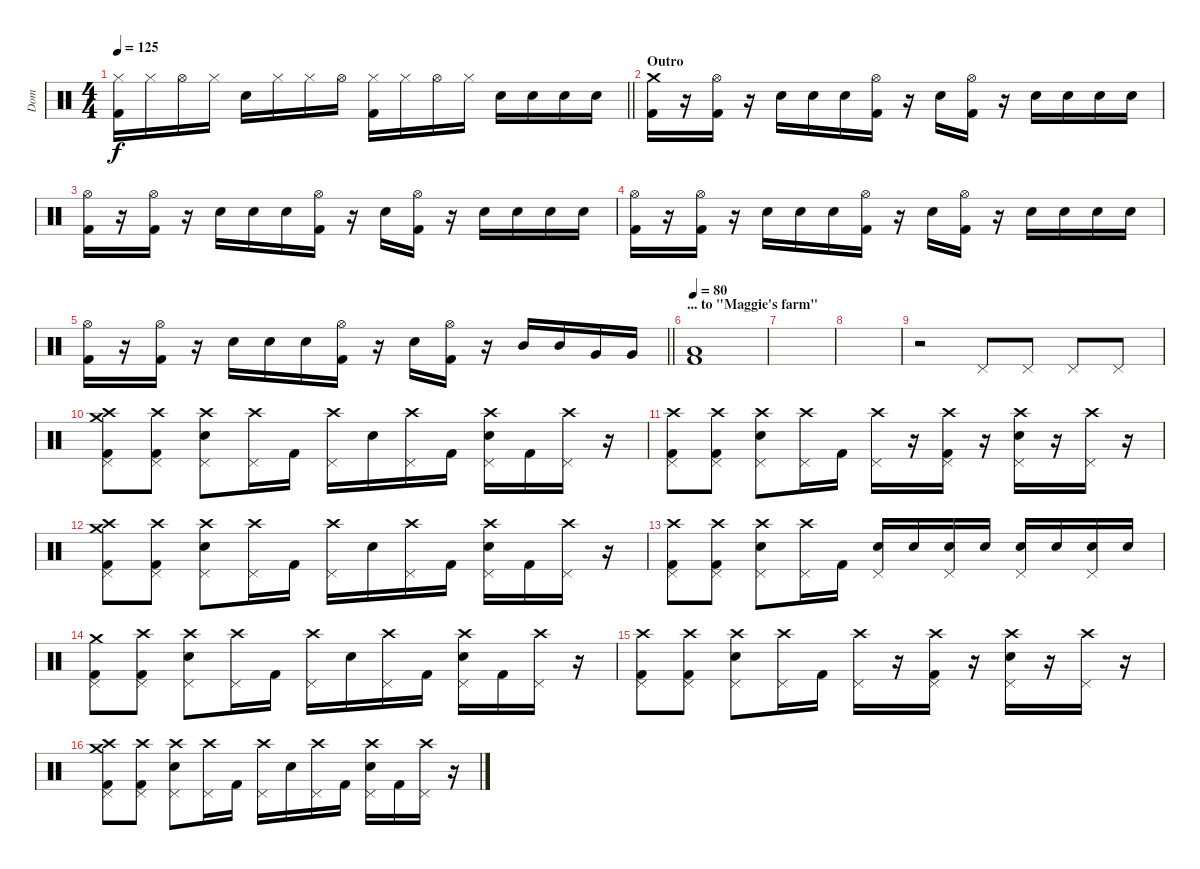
\track ("Dom" "Dom") {instrument percussion}
\staff {score}
\articulation defaults
\ts (4 4)
\tempo 125
\clef neutral
\barLineRight lightlight
\ks c
("Hi-Hat (closed)" "Kick (hit) 2").16{dy f} "Hi-Hat (closed)".16 "Hi-Hat (open)".16 "Hi-Hat (closed)".16 "Snare (hit) 2".16 "Hi-Hat (closed)".16 "Hi-Hat (closed)".16 "Hi-Hat (open)".16 ("Hi-Hat (closed)" "Kick (hit) 2").16 "Hi-Hat (closed)".16 "Hi-Hat (open)".16 "Hi-Hat (closed)".16 "Snare (hit) 2".16 "Snare (hit) 2".16 "Snare (hit) 2".16 "Snare (hit) 2".16 |
\section ("" "Outro")
("Crash medium (hit)" "Kick (hit) 2").16 r.16 ("Hi-Hat (open)" "Kick (hit) 2").16 r.16 "Snare (hit) 2".16 "Snare (hit) 2".16 "Snare (hit) 2".16 ("Hi-Hat (open)" "Kick (hit) 2").16 r.16 "Snare (hit) 2".16 ("Hi-Hat (open)" "Kick (hit) 2").16 r.16 "Snare (hit) 2".16 "Snare (hit) 2".16 "Snare (hit) 2".16 "Snare (hit) 2".16 |
("Hi-Hat (open)" "Kick (hit) 2").16 r.16 ("Hi-Hat (open)" "Kick (hit) 2").16 r.16 "Snare (hit) 2".16 "Snare (hit) 2".16 "Snare (hit) 2".16 ("Hi-Hat (open)" "Kick (hit) 2").16 r.16 "Snare (hit) 2".16 ("Hi-Hat (open)" "Kick (hit) 2").16 r.16 "Snare (hit) 2".16 "Snare (hit) 2".16 "Snare (hit) 2".16 "Snare (hit) 2".16 |
("Hi-Hat (open)" "Kick (hit) 2").16 r.16 ("Hi-Hat (open)" "Kick (hit) 2").16 r.16 "Snare (hit) 2".16 "Snare (hit) 2".16 "Snare (hit) 2".16 ("Hi-Hat (open)" "Kick (hit) 2").16 r.16 "Snare (hit) 2".16 ("Hi-Hat (open)" "Kick (hit) 2").16 r.16 "Snare (hit) 2".16 "Snare (hit) 2".16 "Snare (hit) 2".16 "Snare (hit) 2".16 |
\barLineRight lightlight
("Hi-Hat (open)" "Kick (hit) 2").16 r.16 ("Hi-Hat (open)" "Kick (hit) 2").16 r.16 "Snare (hit) 2".16 "Snare (hit) 2".16 "Snare (hit) 2".16 ("Hi-Hat (open)" "Kick (hit) 2").16 r.16 "Snare (hit) 2".16 ("Hi-Hat (open)" "Kick (hit) 2").16 r.16 "Mid Tom (hit)".16 "Mid Tom (hit)".16 "Very Low Tom (hit)".16 "Very Low Tom (hit)".16 |
\section ("" "... to \"Maggie's farm\"")
\tempo 80
("Low Floor Tom (hit)" "Kick (hit) 2").1 |
|
|
r.2 "Pedal Hi-Hat (hit)".8 "Pedal Hi-Hat (hit)".8 "Pedal Hi-Hat (hit)".8 "Pedal Hi-Hat (hit)".8 |
("Crash high (hit)" "Crash medium (hit)" "Pedal Hi-Hat (hit)" "Kick (hit) 2").8 ("Crash high (hit)" "Pedal Hi-Hat (hit)" "Kick (hit) 2").8 ("Crash high (hit)" "Snare (hit) 2" "Pedal Hi-Hat (hit)").8 ("Crash high (hit)" "Pedal Hi-Hat (hit)").16 "Kick (hit) 2".16 ("Crash high (hit)" "Pedal Hi-Hat (hit)").16 "Snare (hit) 2".16 ("Crash high (hit)" "Pedal Hi-Hat (hit)").16 "Kick (hit) 2".16 ("Crash high (hit)" "Snare (hit) 2" "Pedal Hi-Hat (hit)").16 "Kick (hit) 2".16 ("Crash high (hit)" "Pedal Hi-Hat (hit)").16 r.16 |
("Crash high (hit)" "Pedal Hi-Hat (hit)" "Kick (hit) 2").8 ("Crash high (hit)" "Pedal Hi-Hat (hit)" "Kick (hit) 2").8 ("Crash high (hit)" "Snare (hit) 2" "Pedal Hi-Hat (hit)").8 ("Crash high (hit)" "Pedal Hi-Hat (hit)").16 "Kick (hit) 2".16 ("Crash high (hit)" "Pedal Hi-Hat (hit)").16 r.16 ("Crash high (hit)" "Pedal Hi-Hat (hit)" "Kick (hit) 2").16 r.16 ("Crash high (hit)" "Snare (hit) 2" "Pedal Hi-Hat (hit)").16 r.16 ("Crash high (hit)" "Pedal Hi-Hat (hit)").16 r.16 |
("Crash high (hit)" "Crash medium (hit)" "Pedal Hi-Hat (hit)" "Kick (hit) 2").8 ("Crash high (hit)" "Pedal Hi-Hat (hit)" "Kick (hit) 2").8 ("Crash high (hit)" "Snare (hit) 2" "Pedal Hi-Hat (hit)").8 ("Crash high (hit)" "Pedal Hi-Hat (hit)").16 "Kick (hit) 2".16 ("Crash high (hit)" "Pedal Hi-Hat (hit)").16 "Snare (hit) 2".16 ("Crash high (hit)" "Pedal Hi-Hat (hit)").16 "Kick (hit) 2".16 ("Crash high (hit)" "Snare (hit) 2" "Pedal Hi-Hat (hit)").16 "Kick (hit) 2".16 ("Crash high (hit)" "Pedal Hi-Hat (hit)").16 r.16 |
("Crash high (hit)" "Pedal Hi-Hat (hit)" "Kick (hit) 2").8 ("Crash high (hit)" "Pedal Hi-Hat (hit)" "Kick (hit) 2").8 ("Crash high (hit)" "Snare (hit) 2" "Pedal Hi-Hat (hit)").8 ("Crash high (hit)" "Pedal Hi-Hat (hit)").16 "Kick (hit) 2".16 ("Snare (hit) 2" "Pedal Hi-Hat (hit)").16 "Snare (hit) 2".16 ("Snare (hit) 2" "Pedal Hi-Hat (hit)").16 "Snare (hit) 2".16 ("Snare (hit) 2" "Pedal Hi-Hat (hit)").16 "Snare (hit) 2".16 ("Snare (hit) 2" "Pedal Hi-Hat (hit)").16 "Snare (hit) 2".16 |
("Crash medium (hit)" "Pedal Hi-Hat (hit)" "Kick (hit) 2").8 ("Crash high (hit)" "Pedal Hi-Hat (hit)" "Kick (hit) 2").8 ("Crash high (hit)" "Snare (hit) 2" "Pedal Hi-Hat (hit)").8 ("Crash high (hit)" "Pedal Hi-Hat (hit)").16 "Kick (hit) 2".16 ("Crash high (hit)" "Pedal Hi-Hat (hit)").16 "Snare (hit) 2".16 ("Crash high (hit)" "Pedal Hi-Hat (hit)").16 "Kick (hit) 2".16 ("Crash high (hit)" "Snare (hit) 2" "Pedal Hi-Hat (hit)").16 "Kick (hit) 2".16 ("Crash high (hit)" "Pedal Hi-Hat (hit)").16 r.16 |
("Crash high (hit)" "Pedal Hi-Hat (hit)" "Kick (hit) 2").8 ("Crash high (hit)" "Pedal Hi-Hat (hit)" "Kick (hit) 2").8 ("Crash high (hit)" "Snare (hit) 2" "Pedal Hi-Hat (hit)").8 ("Crash high (hit)" "Pedal Hi-Hat (hit)").16 "Kick (hit) 2".16 ("Crash high (hit)" "Pedal Hi-Hat (hit)").16 r.16 ("Crash high (hit)" "Pedal Hi-Hat (hit)" "Kick (hit) 2").16 r.16 ("Crash high (hit)" "Snare (hit) 2" "Pedal Hi-Hat (hit)").16 r.16 ("Crash high (hit)" "Pedal Hi-Hat (hit)").16 r.16 |
("Crash high (hit)" "Crash medium (hit)" "Pedal Hi-Hat (hit)" "Kick (hit) 2").8 ("Crash high (hit)" "Pedal Hi-Hat (hit)" "Kick (hit) 2").8 ("Crash high (hit)" "Snare (hit) 2" "Pedal Hi-Hat (hit)").8 ("Crash high (hit)" "Pedal Hi-Hat (hit)").16 "Kick (hit) 2".16 ("Crash high (hit)" "Pedal Hi-Hat (hit)").16 "Snare (hit) 2".16 ("Crash high (hit)" "Pedal Hi-Hat (hit)").16 "Kick (hit) 2".16 ("Crash high (hit)" "Snare (hit) 2" "Pedal Hi-Hat (hit)").16 "Kick (hit) 2".16 ("Crash high (hit)" "Pedal Hi-Hat (hit)").16 r.16
